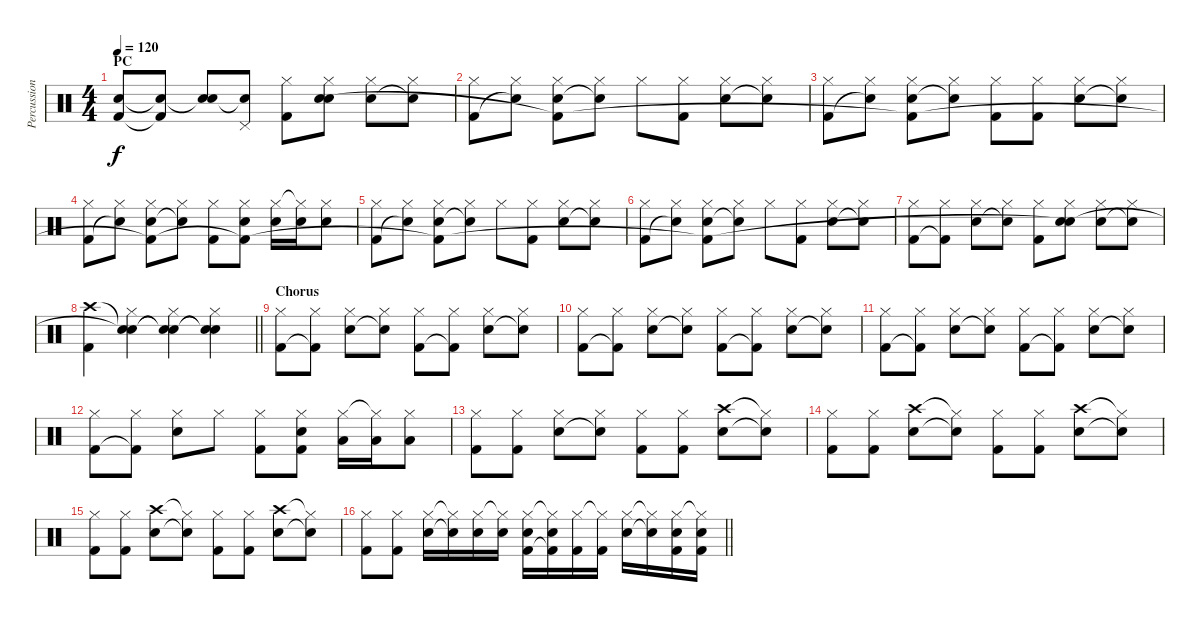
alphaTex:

\track ("Percussion" "Percussion") {instrument percussion}
\staff {score}
\articulation defaults
\ts (4 4)
\section ("" "PC")
\tempo 120
\clef neutral
\ks c
("Snare (hit)"{t} "Kick (hit) 2").8{dy f} ("Snare (hit)"{t} "Kick (hit) 2"{t}).8 ("Snare (hit)"{t} "Electric Snare (hit)").8 ("Pedal Hi-Hat (hit)" "Electric Snare (hit)"{t}).8 ("Hi-Hat (closed)" "Kick (hit) 2").8 ("Hi-Hat (closed)" "Electric Snare (hit)" "Snare (hit)"{t}).8 ("Hi-Hat (closed)" "Electric Snare (hit)").8 ("Hi-Hat (closed)" "Electric Snare (hit)"{t}).8 |
("Hi-Hat (closed)" "Kick (hit) 2").8 ("Hi-Hat (closed)" "Snare (hit)"{t}).8 ("Hi-Hat (closed)" "Electric Snare (hit)" "Kick (hit) 2"{t}).8 ("Hi-Hat (closed)" "Electric Snare (hit)"{t}).8 "Hi-Hat (closed)".8 ("Hi-Hat (closed)" "Kick (hit) 2").8 ("Hi-Hat (closed)" "Electric Snare (hit)").8 ("Hi-Hat (closed)" "Electric Snare (hit)"{t}).8 |
("Hi-Hat (closed)" "Kick (hit) 2").8 ("Hi-Hat (closed)" "Snare (hit)"{t}).8 ("Hi-Hat (closed)" "Electric Snare (hit)" "Kick (hit) 2"{t}).8 ("Hi-Hat (closed)" "Electric Snare (hit)"{t}).8 ("Hi-Hat (closed)" "Kick (hit) 2").8 ("Hi-Hat (closed)" "Kick (hit) 2").8 ("Hi-Hat (closed)" "Electric Snare (hit)").8 ("Hi-Hat (closed)" "Electric Snare (hit)"{t}).8 |
("Hi-Hat (closed)" "Kick (hit) 2").8 ("Hi-Hat (closed)" "Snare (hit)"{t}).8 ("Hi-Hat (closed)" "Electric Snare (hit)" "Kick (hit) 2"{t}).8 ("Hi-Hat (closed)" "Electric Snare (hit)"{t}).8 ("Hi-Hat (closed)" "Kick (hit) 2").8 ("Hi-Hat (closed)" "Electric Snare (hit)" "Kick (hit) 2"{t}).8 ("Hi-Hat (closed)" "Electric Snare (hit)").16 ("Hi-Hat (closed)"{t} "Electric Snare (hit)").16 ("Hi-Hat (closed)" "Electric Snare (hit)").8 |
("Hi-Hat (closed)" "Kick (hit) 2").8 ("Hi-Hat (closed)" "Snare (hit)"{t}).8 ("Hi-Hat (closed)" "Electric Snare (hit)" "Kick (hit) 2"{t}).8 ("Hi-Hat (closed)" "Electric Snare (hit)"{t}).8 "Hi-Hat (closed)".8 ("Hi-Hat (closed)" "Kick (hit) 2").8 ("Hi-Hat (closed)" "Electric Snare (hit)").8 ("Hi-Hat (closed)" "Electric Snare (hit)"{t}).8 |
("Hi-Hat (closed)" "Kick (hit) 2").8 ("Hi-Hat (closed)" "Snare (hit)"{t}).8 ("Hi-Hat (closed)" "Electric Snare (hit)" "Kick (hit) 2"{t}).8 ("Hi-Hat (closed)" "Electric Snare (hit)"{t}).8 "Hi-Hat (closed)".8 ("Hi-Hat (closed)" "Kick (hit) 2").8 ("Hi-Hat (closed)" "Electric Snare (hit)").8 ("Hi-Hat (closed)" "Electric Snare (hit)"{t}).8 |
("Hi-Hat (closed)" "Kick (hit) 2").8 ("Hi-Hat (closed)" "Kick (hit) 2"{t}).8 ("Hi-Hat (closed)" "Electric Snare (hit)").8 ("Hi-Hat (closed)" "Electric Snare (hit)"{t}).8 ("Hi-Hat (closed)" "Kick (hit) 2").8 ("Hi-Hat (closed)" "Electric Snare (hit)" "Snare (hit)"{t}).8 ("Hi-Hat (closed)" "Electric Snare (hit)").8 ("Hi-Hat (closed)" "Electric Snare (hit)"{t}).8 |
\barLineRight lightlight
("Crash high (hit)" "Kick (hit) 2").4 ("Snare (hit)"{t} "Hi-Hat (closed)" "Snare (hit)"{t}).4 ("Snare (hit)"{t} "Hi-Hat (closed)" "Snare (hit)"{t}).4 ("Snare (hit)"{t} "Hi-Hat (closed)" "Snare (hit)"{t}).4 |
\section ("" "Chorus")
("Hi-Hat (closed)" "Kick (hit) 2").8 ("Hi-Hat (closed)" "Kick (hit) 2"{t}).8 ("Hi-Hat (closed)" "Electric Snare (hit)").8 ("Hi-Hat (closed)" "Electric Snare (hit)"{t}).8 ("Hi-Hat (closed)" "Kick (hit) 2").8 ("Hi-Hat (closed)" "Kick (hit) 2"{t}).8 ("Hi-Hat (closed)" "Electric Snare (hit)").8 ("Hi-Hat (closed)" "Electric Snare (hit)"{t}).8 |
("Hi-Hat (closed)" "Kick (hit) 2").8 ("Hi-Hat (closed)" "Kick (hit) 2"{t}).8 ("Hi-Hat (closed)" "Electric Snare (hit)").8 ("Hi-Hat (closed)" "Electric Snare (hit)"{t}).8 ("Hi-Hat (closed)" "Kick (hit) 2").8 ("Hi-Hat (closed)" "Kick (hit) 2"{t}).8 ("Hi-Hat (closed)" "Electric Snare (hit)").8 ("Hi-Hat (closed)" "Electric Snare (hit)"{t}).8 |
("Hi-Hat (closed)" "Kick (hit) 2").8 ("Hi-Hat (closed)" "Kick (hit) 2"{t}).8 ("Hi-Hat (closed)" "Electric Snare (hit)").8 ("Hi-Hat (closed)" "Electric Snare (hit)"{t}).8 ("Hi-Hat (closed)" "Kick (hit) 2").8 ("Hi-Hat (closed)" "Kick (hit) 2"{t}).8 ("Hi-Hat (closed)" "Electric Snare (hit)").8 ("Hi-Hat (closed)" "Electric Snare (hit)"{t}).8 |
("Hi-Hat (closed)" "Kick (hit) 2").8 ("Hi-Hat (closed)" "Kick (hit) 2"{t}).8 ("Hi-Hat (closed)" "Electric Snare (hit)").8 "Hi-Hat (closed)".8 ("Hi-Hat (closed)" "Kick (hit) 2").8 ("Hi-Hat (closed)" "Electric Snare (hit)" "Kick (hit) 2").8 ("Hi-Hat (closed)" "Low Floor Tom (hit)").16 ("Hi-Hat (closed)"{t} "Low Floor Tom (hit)").16 ("Hi-Hat (closed)" "Low Floor Tom (hit)").8 |
("Hi-Hat (closed)" "Kick (hit) 2").8 ("Hi-Hat (closed)" "Kick (hit) 2").8 ("Hi-Hat (closed)" "Electric Snare (hit)").8 ("Hi-Hat (closed)" "Electric Snare (hit)"{t}).8 ("Hi-Hat (closed)" "Kick (hit) 2").8 ("Hi-Hat (closed)" "Kick (hit) 2").8 ("Crash high (hit)" "Electric Snare (hit)").8 ("Hi-Hat (closed)"{t} "Electric Snare (hit)"{t}).8 |
("Hi-Hat (closed)" "Kick (hit) 2").8 ("Hi-Hat (closed)" "Kick (hit) 2").8 ("Crash high (hit)" "Electric Snare (hit)").8 ("Hi-Hat (closed)"{t} "Electric Snare (hit)"{t}).8 ("Hi-Hat (closed)" "Kick (hit) 2").8 ("Hi-Hat (closed)" "Kick (hit) 2").8 ("Crash high (hit)" "Electric Snare (hit)").8 ("Hi-Hat (closed)"{t} "Electric Snare (hit)"{t}).8 |
("Hi-Hat (closed)" "Kick (hit) 2").8 ("Hi-Hat (closed)" "Kick (hit) 2").8 ("Crash high (hit)" "Electric Snare (hit)").8 ("Hi-Hat (closed)"{t} "Electric Snare (hit)"{t}).8 ("Hi-Hat (closed)" "Kick (hit) 2").8 ("Hi-Hat (closed)" "Kick (hit) 2").8 ("Crash high (hit)" "Electric Snare (hit)").8 ("Hi-Hat (closed)"{t} "Electric Snare (hit)"{t}).8 |
\barLineRight lightlight
("Hi-Hat (closed)" "Kick (hit) 2").8 ("Hi-Hat (closed)" "Kick (hit) 2").8 ("Hi-Hat (closed)" "Electric Snare (hit)").16 ("Hi-Hat (closed)"{t} "Electric Snare (hit)"{t}).16 ("Hi-Hat (closed)" "Electric Snare (hit)").16 ("Hi-Hat (closed)"{t} "Electric Snare (hit)").16 ("Hi-Hat (closed)" "Electric Snare (hit)" "Kick (hit) 2").16 ("Hi-Hat (closed)"{t} "Electric Snare (hit)" "Kick (hit) 2"{t}).16 ("Hi-Hat (closed)" "Kick (hit) 2").16 ("Hi-Hat (closed)"{t} "Kick (hit) 2").16 ("Hi-Hat (closed)" "Electric Snare (hit)").16 ("Hi-Hat (closed)"{t} "Electric Snare (hit)"{t}).16 ("Hi-Hat (closed)" "Electric Snare (hit)" "Kick (hit) 2").16 ("Hi-Hat (closed)"{t} "Electric Snare (hit)" "Kick (hit) 2").16
